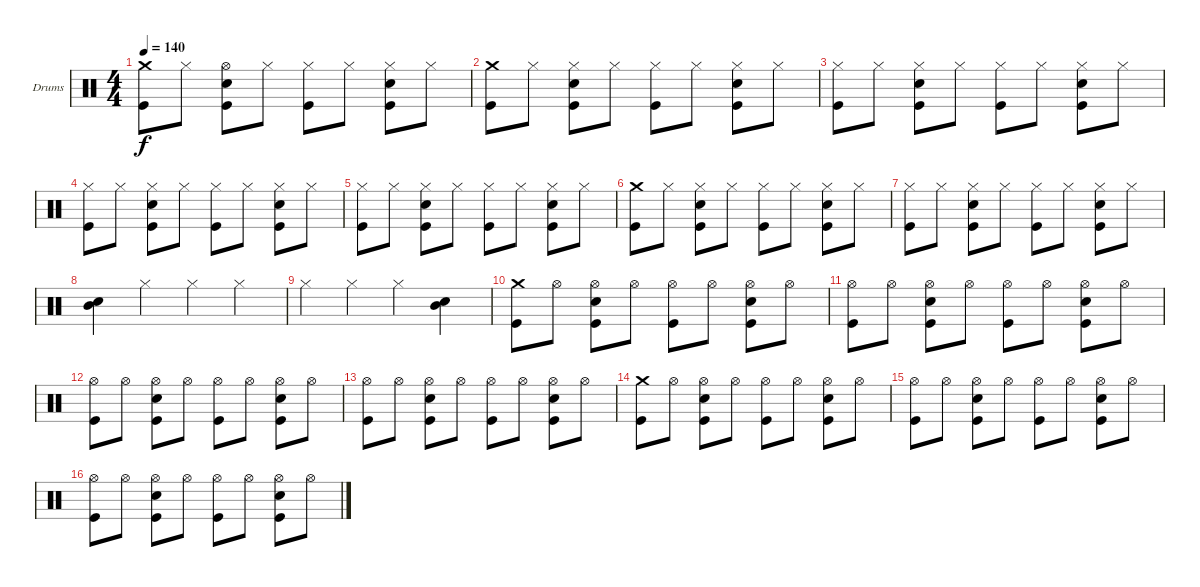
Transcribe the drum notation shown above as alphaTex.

\bracketExtendMode groupsimilarinstruments
\firstSystemTrackNameOrientation horizontal
\otherSystemsTrackNameOrientation horizontal
\track ("Drumkit" "Drums") {instrument percussion}
\staff {score}
\articulation defaults
\ts (4 4)
\tempo 140
\clef neutral
\ks c
("Crash medium (hit)" "Kick (hit)").8{dy f} "Hi-Hat (closed)".8 ("Hi-Hat (open)" "Snare (hit) 2" "Kick (hit)").8 "Hi-Hat (closed)".8 ("Hi-Hat (closed)" "Kick (hit)").8 "Hi-Hat (closed)".8 ("Hi-Hat (closed)" "Snare (hit) 2" "Kick (hit)").8 "Hi-Hat (closed)".8 |
("Crash medium (hit)" "Kick (hit)").8 "Hi-Hat (closed)".8 ("Hi-Hat (closed)" "Snare (hit) 2" "Kick (hit)").8 "Hi-Hat (closed)".8 ("Hi-Hat (closed)" "Kick (hit)").8 "Hi-Hat (closed)".8 ("Hi-Hat (closed)" "Snare (hit) 2" "Kick (hit)").8 "Hi-Hat (closed)".8 |
("Hi-Hat (closed)" "Kick (hit)").8 "Hi-Hat (closed)".8 ("Hi-Hat (closed)" "Snare (hit) 2" "Kick (hit)").8 "Hi-Hat (closed)".8 ("Hi-Hat (closed)" "Kick (hit)").8 "Hi-Hat (closed)".8 ("Hi-Hat (closed)" "Snare (hit) 2" "Kick (hit)").8 "Hi-Hat (closed)".8 |
("Hi-Hat (closed)" "Kick (hit)").8 "Hi-Hat (closed)".8 ("Hi-Hat (closed)" "Snare (hit) 2" "Kick (hit)").8 "Hi-Hat (closed)".8 ("Hi-Hat (closed)" "Kick (hit)").8 "Hi-Hat (closed)".8 ("Hi-Hat (closed)" "Snare (hit) 2" "Kick (hit)").8 "Hi-Hat (closed)".8 |
("Hi-Hat (closed)" "Kick (hit)").8 "Hi-Hat (closed)".8 ("Hi-Hat (closed)" "Snare (hit) 2" "Kick (hit)").8 "Hi-Hat (closed)".8 ("Hi-Hat (closed)" "Kick (hit)").8 "Hi-Hat (closed)".8 ("Hi-Hat (closed)" "Snare (hit) 2" "Kick (hit)").8 "Hi-Hat (closed)".8 |
("Crash medium (hit)" "Kick (hit)").8 "Hi-Hat (closed)".8 ("Hi-Hat (closed)" "Snare (hit) 2" "Kick (hit)").8 "Hi-Hat (closed)".8 ("Hi-Hat (closed)" "Kick (hit)").8 "Hi-Hat (closed)".8 ("Hi-Hat (closed)" "Snare (hit) 2" "Kick (hit)").8 "Hi-Hat (closed)".8 |
("Hi-Hat (closed)" "Kick (hit)").8 "Hi-Hat (closed)".8 ("Hi-Hat (closed)" "Snare (hit) 2" "Kick (hit)").8 "Hi-Hat (closed)".8 ("Hi-Hat (closed)" "Kick (hit)").8 "Hi-Hat (closed)".8 ("Hi-Hat (closed)" "Snare (hit) 2" "Kick (hit)").8 "Hi-Hat (closed)".8 |
("Mid Tom (hit)" "Snare (hit) 2").4 "Hi-Hat (closed)".4 "Hi-Hat (closed)".4 "Hi-Hat (closed)".4 |
"Hi-Hat (closed)".4 "Hi-Hat (closed)".4 "Hi-Hat (closed)".4 ("Mid Tom (hit)" "Snare (hit) 2").4 |
("Crash medium (hit)" "Kick (hit)").8 "Hi-Hat (open)".8 ("Hi-Hat (open)" "Snare (hit) 2" "Kick (hit)").8 "Hi-Hat (open)".8 ("Hi-Hat (open)" "Kick (hit)").8 "Hi-Hat (open)".8 ("Hi-Hat (open)" "Snare (hit) 2" "Kick (hit)").8 "Hi-Hat (open)".8 |
("Hi-Hat (open)" "Kick (hit)").8 "Hi-Hat (open)".8 ("Hi-Hat (open)" "Snare (hit) 2" "Kick (hit)").8 "Hi-Hat (open)".8 ("Hi-Hat (open)" "Kick (hit)").8 "Hi-Hat (open)".8 ("Hi-Hat (open)" "Snare (hit) 2" "Kick (hit)").8 "Hi-Hat (open)".8 |
("Hi-Hat (open)" "Kick (hit)").8 "Hi-Hat (open)".8 ("Hi-Hat (open)" "Snare (hit) 2" "Kick (hit)").8 "Hi-Hat (open)".8 ("Hi-Hat (open)" "Kick (hit)").8 "Hi-Hat (open)".8 ("Hi-Hat (open)" "Snare (hit) 2" "Kick (hit)").8 "Hi-Hat (open)".8 |
("Hi-Hat (open)" "Kick (hit)").8 "Hi-Hat (open)".8 ("Hi-Hat (open)" "Snare (hit) 2" "Kick (hit)").8 "Hi-Hat (open)".8 ("Hi-Hat (open)" "Kick (hit)").8 "Hi-Hat (open)".8 ("Hi-Hat (open)" "Snare (hit) 2" "Kick (hit)").8 "Hi-Hat (open)".8 |
("Crash medium (hit)" "Kick (hit)").8 "Hi-Hat (open)".8 ("Hi-Hat (open)" "Snare (hit) 2" "Kick (hit)").8 "Hi-Hat (open)".8 ("Hi-Hat (open)" "Kick (hit)").8 "Hi-Hat (open)".8 ("Hi-Hat (open)" "Snare (hit) 2" "Kick (hit)").8 "Hi-Hat (open)".8 |
("Hi-Hat (open)" "Kick (hit)").8 "Hi-Hat (open)".8 ("Hi-Hat (open)" "Snare (hit) 2" "Kick (hit)").8 "Hi-Hat (open)".8 ("Hi-Hat (open)" "Kick (hit)").8 "Hi-Hat (open)".8 ("Hi-Hat (open)" "Snare (hit) 2" "Kick (hit)").8 "Hi-Hat (open)".8 |
("Hi-Hat (open)" "Kick (hit)").8 "Hi-Hat (open)".8 ("Hi-Hat (open)" "Snare (hit) 2" "Kick (hit)").8 "Hi-Hat (open)".8 ("Hi-Hat (open)" "Kick (hit)").8 "Hi-Hat (open)".8 ("Hi-Hat (open)" "Snare (hit) 2" "Kick (hit)").8 "Hi-Hat (open)".8
